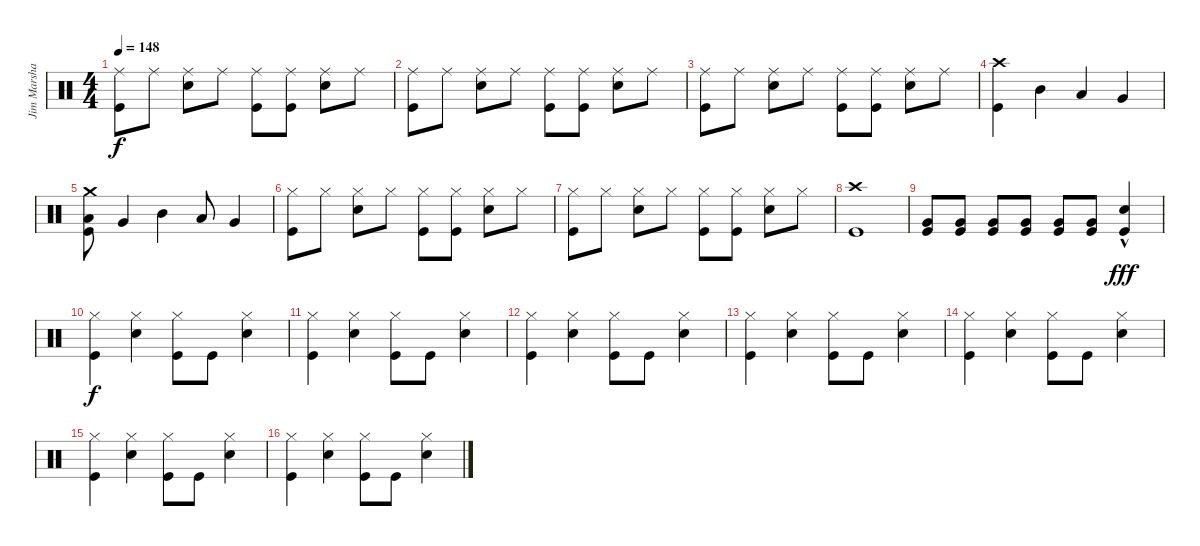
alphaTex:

\track ("Jim Marshall Drums" "Jim Marsha") {instrument percussion}
\staff {score}
\articulation defaults
\ts (4 4)
\tempo 148
\clef neutral
\ks c
("Ride (middle)" "Kick (hit)").8{dy f} "Ride (middle)".8 ("Ride (middle)" "Snare (hit) 2").8 "Ride (middle)".8 ("Ride (middle)" "Kick (hit)").8 ("Ride (middle)" "Kick (hit)").8 ("Ride (middle)" "Snare (hit) 2").8 "Ride (middle)".8 |
("Ride (middle)" "Kick (hit)").8 "Ride (middle)".8 ("Ride (middle)" "Snare (hit) 2").8 "Ride (middle)".8 ("Ride (middle)" "Kick (hit)").8 ("Ride (middle)" "Kick (hit)").8 ("Ride (middle)" "Snare (hit) 2").8 "Ride (middle)".8 |
("Ride (middle)" "Kick (hit)").8 "Ride (middle)".8 ("Ride (middle)" "Snare (hit) 2").8 "Ride (middle)".8 ("Ride (middle)" "Kick (hit)").8 ("Ride (middle)" "Kick (hit)").8 ("Ride (middle)" "Snare (hit) 2").8 "Ride (middle)".8 |
("Crash high (hit)" "Kick (hit)").4 "Mid Tom (hit)".4 "Low Tom (hit)".4 "Very Low Tom (hit)".4 |
("Crash medium (hit)" "Low Tom (hit)" "Kick (hit)").8 "Very Low Tom (hit)".4 "Mid Tom (hit)".4 "Low Tom (hit)".8 "Very Low Tom (hit)".4 |
("Hi-Hat (closed)" "Kick (hit)").8 "Hi-Hat (closed)".8 ("Hi-Hat (closed)" "Snare (hit) 2").8 "Hi-Hat (closed)".8 ("Hi-Hat (closed)" "Kick (hit)").8 ("Hi-Hat (closed)" "Kick (hit)").8 ("Hi-Hat (closed)" "Snare (hit) 2").8 "Hi-Hat (closed)".8 |
("Hi-Hat (closed)" "Kick (hit)").8 "Hi-Hat (closed)".8 ("Hi-Hat (closed)" "Snare (hit) 2").8 "Hi-Hat (closed)".8 ("Hi-Hat (closed)" "Kick (hit)").8 ("Hi-Hat (closed)" "Kick (hit)").8 ("Hi-Hat (closed)" "Snare (hit) 2").8 "Hi-Hat (closed)".8 |
("Crash high (hit)" "Kick (hit)").1 |
("Very Low Tom (hit)" "Kick (hit)").8 ("Very Low Tom (hit)" "Kick (hit)").8 ("Very Low Tom (hit)" "Kick (hit)").8 ("Very Low Tom (hit)" "Kick (hit)").8 ("Very Low Tom (hit)" "Kick (hit)").8 ("Very Low Tom (hit)" "Kick (hit)").8 ("Snare (hit) 2"{hac} "Kick (hit)").4{dy fff} |
("Hi-Hat (closed)" "Kick (hit)").4{dy f} ("Hi-Hat (closed)" "Snare (hit) 2").4 ("Hi-Hat (closed)" "Kick (hit)").8 "Kick (hit)".8 ("Hi-Hat (closed)" "Snare (hit) 2").4 |
("Hi-Hat (closed)" "Kick (hit)").4 ("Hi-Hat (closed)" "Snare (hit) 2").4 ("Hi-Hat (closed)" "Kick (hit)").8 "Kick (hit)".8 ("Hi-Hat (closed)" "Snare (hit) 2").4 |
("Hi-Hat (closed)" "Kick (hit)").4 ("Hi-Hat (closed)" "Snare (hit) 2").4 ("Hi-Hat (closed)" "Kick (hit)").8 "Kick (hit)".8 ("Hi-Hat (closed)" "Snare (hit) 2").4 |
("Hi-Hat (closed)" "Kick (hit)").4 ("Hi-Hat (closed)" "Snare (hit) 2").4 ("Hi-Hat (closed)" "Kick (hit)").8 "Kick (hit)".8 ("Hi-Hat (closed)" "Snare (hit) 2").4 |
("Hi-Hat (closed)" "Kick (hit)").4 ("Hi-Hat (closed)" "Snare (hit) 2").4 ("Hi-Hat (closed)" "Kick (hit)").8 "Kick (hit)".8 ("Hi-Hat (closed)" "Snare (hit) 2").4 |
("Hi-Hat (closed)" "Kick (hit)").4 ("Hi-Hat (closed)" "Snare (hit) 2").4 ("Hi-Hat (closed)" "Kick (hit)").8 "Kick (hit)".8 ("Hi-Hat (closed)" "Snare (hit) 2").4 |
("Hi-Hat (closed)" "Kick (hit)").4 ("Hi-Hat (closed)" "Snare (hit) 2").4 ("Hi-Hat (closed)" "Kick (hit)").8 "Kick (hit)".8 ("Hi-Hat (closed)" "Snare (hit) 2").4
